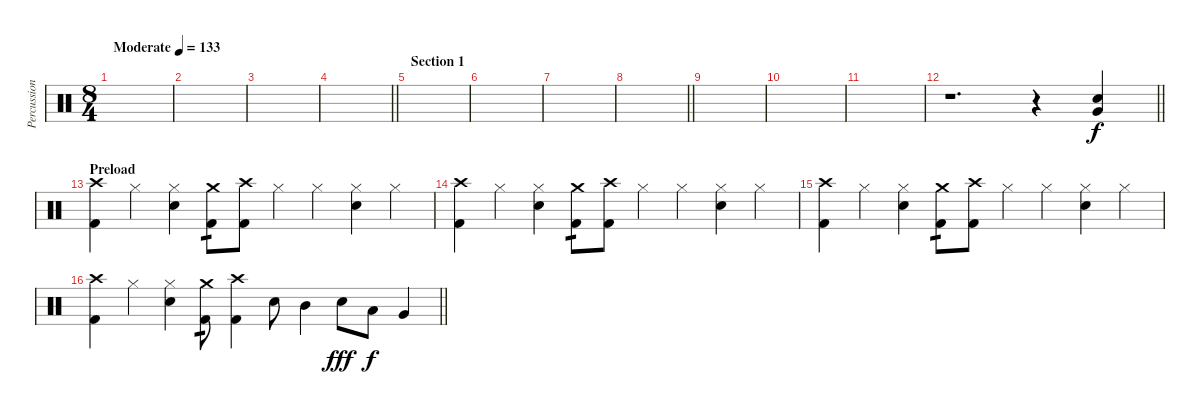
\track ("Percussion" "Percussion") {instrument percussion}
\staff {score}
\articulation defaults
\ts (8 4)
\tempo (133 "Moderate")
\clef neutral
\ks c
|
|
|
\barLineRight lightlight
|
\section ("" "Section 1")
|
|
|
\barLineRight lightlight
|
|
|
|
\barLineRight lightlight
r.1{d} r.4 ("Very Low Tom (hit)" "Electric Snare (hit)").4 |
\section ("" "Preload")
("Crash high (hit)" "Kick (hit) 2").4 "Hi-Hat (closed)".4 ("Hi-Hat (closed)" "Electric Snare (hit)").4 ("Crash medium (hit)" "Kick (hit) 2").8{tp 1} ("Crash high (hit)" "Kick (hit) 2").8 "Hi-Hat (closed)".4 "Hi-Hat (closed)".4 ("Hi-Hat (closed)" "Electric Snare (hit)").4 "Hi-Hat (closed)".4 |
("Crash high (hit)" "Kick (hit) 2").4 "Hi-Hat (closed)".4 ("Hi-Hat (closed)" "Electric Snare (hit)").4 ("Crash medium (hit)" "Kick (hit) 2").8{tp 1} ("Crash high (hit)" "Kick (hit) 2").8 "Hi-Hat (closed)".4 "Hi-Hat (closed)".4 ("Hi-Hat (closed)" "Electric Snare (hit)").4 "Hi-Hat (closed)".4 |
("Crash high (hit)" "Kick (hit) 2").4 "Hi-Hat (closed)".4 ("Hi-Hat (closed)" "Electric Snare (hit)").4 ("Crash medium (hit)" "Kick (hit) 2").8{tp 1} ("Crash high (hit)" "Kick (hit) 2").8 "Hi-Hat (closed)".4 "Hi-Hat (closed)".4 ("Hi-Hat (closed)" "Electric Snare (hit)").4 "Hi-Hat (closed)".4 |
\barLineRight lightlight
("Crash high (hit)" "Kick (hit) 2").4 "Hi-Hat (closed)".4 ("Hi-Hat (closed)" "Electric Snare (hit)").4 ("Crash medium (hit)" "Kick (hit) 2").8{tp 1} ("Crash high (hit)" "Kick (hit) 2").4 "Electric Snare (hit)".8 "Mid Tom (hit)".4{dy f} "Electric Snare (hit)".8{dy fff} "Low Tom (hit)".8{dy f} "Very Low Tom (hit)".4
